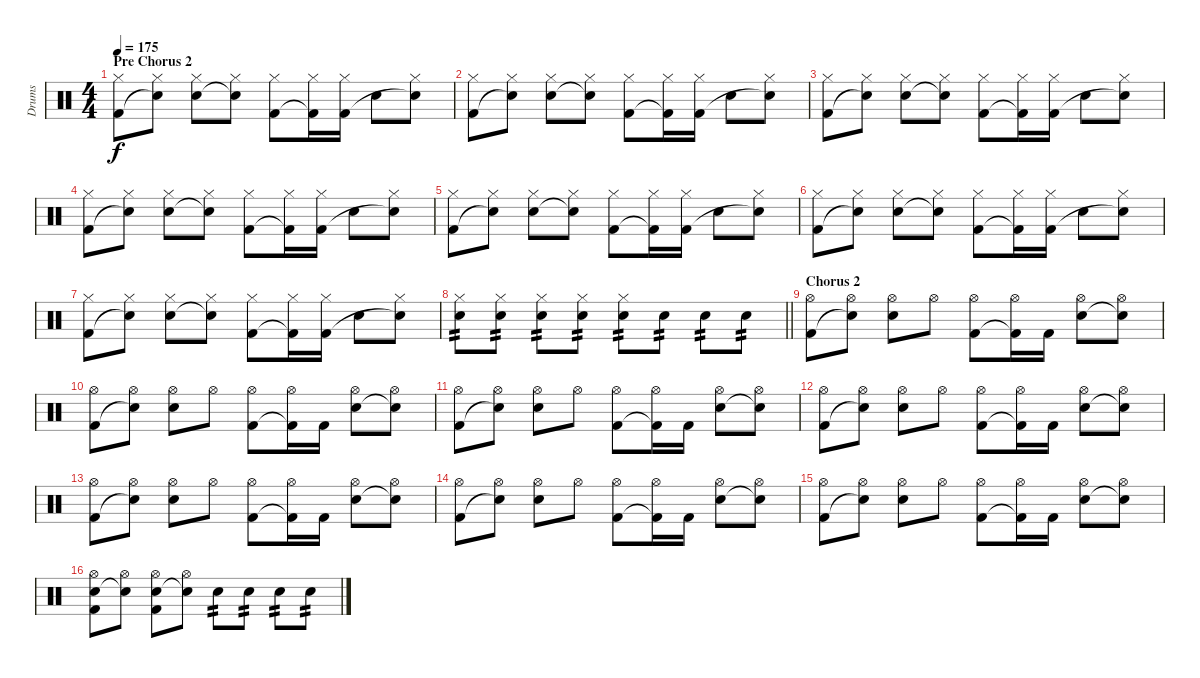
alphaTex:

\track ("Drums" "Drums") {instrument percussion}
\staff {score}
\articulation defaults
\ts (4 4)
\section ("" "Pre Chorus 2")
\tempo 175
\clef neutral
\ks c
("Hi-Hat (closed)" "Kick (hit) 2").8{dy f} ("Hi-Hat (closed)" "Snare (hit)"{t}).8 ("Hi-Hat (closed)" "Electric Snare (hit)").8 ("Hi-Hat (closed)" "Snare (hit)"{t}).8 ("Hi-Hat (closed)" "Kick (hit) 2").8 ("Hi-Hat (closed)" "Kick (hit) 2"{t}).16 ("Hi-Hat (closed)" "Kick (hit) 2").16 "Electric Snare (hit)".8 ("Hi-Hat (closed)" "Snare (hit)"{t}).8 |
("Hi-Hat (closed)" "Kick (hit) 2").8 ("Hi-Hat (closed)" "Snare (hit)"{t}).8 ("Hi-Hat (closed)" "Electric Snare (hit)").8 ("Hi-Hat (closed)" "Snare (hit)"{t}).8 ("Hi-Hat (closed)" "Kick (hit) 2").8 ("Hi-Hat (closed)" "Kick (hit) 2"{t}).16 ("Hi-Hat (closed)" "Kick (hit) 2").16 "Electric Snare (hit)".8 ("Hi-Hat (closed)" "Snare (hit)"{t}).8 |
("Hi-Hat (closed)" "Kick (hit) 2").8 ("Hi-Hat (closed)" "Snare (hit)"{t}).8 ("Hi-Hat (closed)" "Electric Snare (hit)").8 ("Hi-Hat (closed)" "Snare (hit)"{t}).8 ("Hi-Hat (closed)" "Kick (hit) 2").8 ("Hi-Hat (closed)" "Kick (hit) 2"{t}).16 ("Hi-Hat (closed)" "Kick (hit) 2").16 "Electric Snare (hit)".8 ("Hi-Hat (closed)" "Snare (hit)"{t}).8 |
("Hi-Hat (closed)" "Kick (hit) 2").8 ("Hi-Hat (closed)" "Snare (hit)"{t}).8 ("Hi-Hat (closed)" "Electric Snare (hit)").8 ("Hi-Hat (closed)" "Snare (hit)"{t}).8 ("Hi-Hat (closed)" "Kick (hit) 2").8 ("Hi-Hat (closed)" "Kick (hit) 2"{t}).16 ("Hi-Hat (closed)" "Kick (hit) 2").16 "Electric Snare (hit)".8 ("Hi-Hat (closed)" "Snare (hit)"{t}).8 |
("Hi-Hat (closed)" "Kick (hit) 2").8 ("Hi-Hat (closed)" "Snare (hit)"{t}).8 ("Hi-Hat (closed)" "Electric Snare (hit)").8 ("Hi-Hat (closed)" "Snare (hit)"{t}).8 ("Hi-Hat (closed)" "Kick (hit) 2").8 ("Hi-Hat (closed)" "Kick (hit) 2"{t}).16 ("Hi-Hat (closed)" "Kick (hit) 2").16 "Electric Snare (hit)".8 ("Hi-Hat (closed)" "Snare (hit)"{t}).8 |
("Hi-Hat (closed)" "Kick (hit) 2").8 ("Hi-Hat (closed)" "Snare (hit)"{t}).8 ("Hi-Hat (closed)" "Electric Snare (hit)").8 ("Hi-Hat (closed)" "Snare (hit)"{t}).8 ("Hi-Hat (closed)" "Kick (hit) 2").8 ("Hi-Hat (closed)" "Kick (hit) 2"{t}).16 ("Hi-Hat (closed)" "Kick (hit) 2").16 "Electric Snare (hit)".8 ("Hi-Hat (closed)" "Snare (hit)"{t}).8 |
("Hi-Hat (closed)" "Kick (hit) 2").8 ("Hi-Hat (closed)" "Snare (hit)"{t}).8 ("Hi-Hat (closed)" "Electric Snare (hit)").8 ("Hi-Hat (closed)" "Snare (hit)"{t}).8 ("Hi-Hat (closed)" "Kick (hit) 2").8 ("Hi-Hat (closed)" "Kick (hit) 2"{t}).16 ("Hi-Hat (closed)" "Kick (hit) 2").16 "Electric Snare (hit)".8 ("Hi-Hat (closed)" "Snare (hit)"{t}).8 |
\barLineRight lightlight
("Hi-Hat (closed)" "Electric Snare (hit)").8{tp 2} ("Hi-Hat (closed)" "Electric Snare (hit)").8{tp 2} ("Hi-Hat (closed)" "Electric Snare (hit)").8{tp 2} ("Hi-Hat (closed)" "Electric Snare (hit)").8{tp 2} ("Hi-Hat (closed)" "Electric Snare (hit)").8{tp 2} "Electric Snare (hit)".8{tp 2} "Electric Snare (hit)".8{tp 2} "Electric Snare (hit)".8{tp 2} |
\section ("" "Chorus 2")
("Hi-Hat (open)" "Kick (hit) 2").8 ("Hi-Hat (open)" "Snare (hit)"{t}).8 ("Hi-Hat (open)" "Electric Snare (hit)").8 "Hi-Hat (open)".8 ("Hi-Hat (open)" "Kick (hit) 2").8 ("Hi-Hat (open)" "Kick (hit) 2"{t}).16 "Kick (hit) 2".16 ("Hi-Hat (open)" "Electric Snare (hit)").8 ("Hi-Hat (open)" "Snare (hit)"{t}).8 |
("Hi-Hat (open)" "Kick (hit) 2").8 ("Hi-Hat (open)" "Snare (hit)"{t}).8 ("Hi-Hat (open)" "Electric Snare (hit)").8 "Hi-Hat (open)".8 ("Hi-Hat (open)" "Kick (hit) 2").8 ("Hi-Hat (open)" "Kick (hit) 2"{t}).16 "Kick (hit) 2".16 ("Hi-Hat (open)" "Electric Snare (hit)").8 ("Hi-Hat (open)" "Snare (hit)"{t}).8 |
("Hi-Hat (open)" "Kick (hit) 2").8 ("Hi-Hat (open)" "Snare (hit)"{t}).8 ("Hi-Hat (open)" "Electric Snare (hit)").8 "Hi-Hat (open)".8 ("Hi-Hat (open)" "Kick (hit) 2").8 ("Hi-Hat (open)" "Kick (hit) 2"{t}).16 "Kick (hit) 2".16 ("Hi-Hat (open)" "Electric Snare (hit)").8 ("Hi-Hat (open)" "Snare (hit)"{t}).8 |
("Hi-Hat (open)" "Kick (hit) 2").8 ("Hi-Hat (open)" "Snare (hit)"{t}).8 ("Hi-Hat (open)" "Electric Snare (hit)").8 "Hi-Hat (open)".8 ("Hi-Hat (open)" "Kick (hit) 2").8 ("Hi-Hat (open)" "Kick (hit) 2"{t}).16 "Kick (hit) 2".16 ("Hi-Hat (open)" "Electric Snare (hit)").8 ("Hi-Hat (open)" "Snare (hit)"{t}).8 |
("Hi-Hat (open)" "Kick (hit) 2").8 ("Hi-Hat (open)" "Snare (hit)"{t}).8 ("Hi-Hat (open)" "Electric Snare (hit)").8 "Hi-Hat (open)".8 ("Hi-Hat (open)" "Kick (hit) 2").8 ("Hi-Hat (open)" "Kick (hit) 2"{t}).16 "Kick (hit) 2".16 ("Hi-Hat (open)" "Electric Snare (hit)").8 ("Hi-Hat (open)" "Snare (hit)"{t}).8 |
("Hi-Hat (open)" "Kick (hit) 2").8 ("Hi-Hat (open)" "Snare (hit)"{t}).8 ("Hi-Hat (open)" "Electric Snare (hit)").8 "Hi-Hat (open)".8 ("Hi-Hat (open)" "Kick (hit) 2").8 ("Hi-Hat (open)" "Kick (hit) 2"{t}).16 "Kick (hit) 2".16 ("Hi-Hat (open)" "Electric Snare (hit)").8 ("Hi-Hat (open)" "Snare (hit)"{t}).8 |
("Hi-Hat (open)" "Kick (hit) 2").8 ("Hi-Hat (open)" "Snare (hit)"{t}).8 ("Hi-Hat (open)" "Electric Snare (hit)").8 "Hi-Hat (open)".8 ("Hi-Hat (open)" "Kick (hit) 2").8 ("Hi-Hat (open)" "Kick (hit) 2"{t}).16 "Kick (hit) 2".16 ("Hi-Hat (open)" "Electric Snare (hit)").8 ("Hi-Hat (open)" "Snare (hit)"{t}).8 |
("Hi-Hat (open)" "Electric Snare (hit)" "Kick (hit) 2").8 ("Hi-Hat (open)" "Snare (hit)"{t}).8 ("Hi-Hat (open)" "Electric Snare (hit)" "Kick (hit) 2").8 ("Hi-Hat (open)" "Snare (hit)"{t}).8 "Electric Snare (hit)".8{tp 2} "Electric Snare (hit)".8{tp 2} "Electric Snare (hit)".8{tp 2} "Electric Snare (hit)".8{tp 2}
